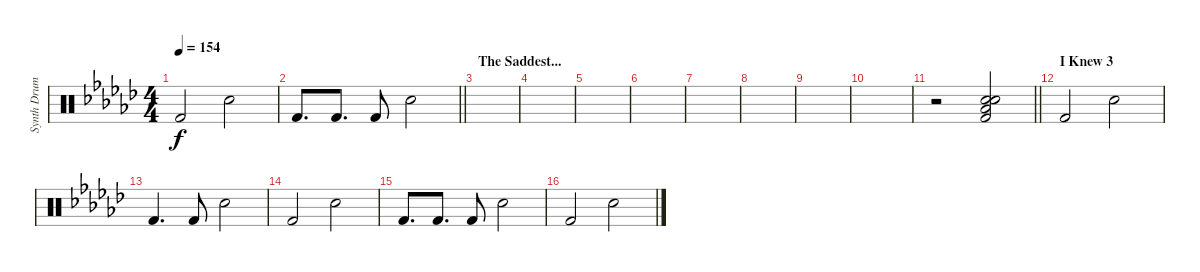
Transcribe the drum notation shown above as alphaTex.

\track ("Synth Drums" "Synth Drum") {instrument percussion}
\staff {score}
\articulation defaults
\ts (4 4)
\tempo 154
\clef neutral
\ks gb "Kick (hit) 2".2{dy f} "Electric Snare (hit)".2
|
\barLineRight lightlight "Kick (hit) 2".8{d} "Kick (hit) 2".8{d} "Kick (hit) 2".8 "Electric Snare (hit)".2
|
\section ("" "The Saddest...")
|
|
|
|
|
|
|
|
\barLineRight lightlight
r.2 ("Low Floor Tom (hit)" "Snare (hit) 2" "Electric Snare (hit)" "Kick (hit) 2").2 |
\section ("" "I Knew 3")
"Kick (hit) 2".2 "Electric Snare (hit)".2 |
"Kick (hit) 2".4{d} "Kick (hit) 2".8 "Electric Snare (hit)".2 |
"Kick (hit) 2".2 "Electric Snare (hit)".2 |
"Kick (hit) 2".8{d} "Kick (hit) 2".8{d} "Kick (hit) 2".8 "Electric Snare (hit)".2 |
"Kick (hit) 2".2 "Electric Snare (hit)".2
